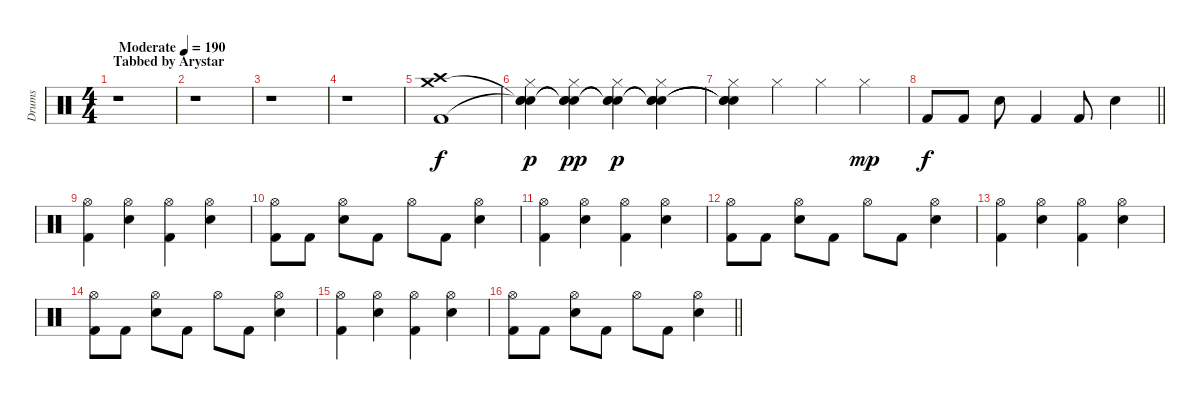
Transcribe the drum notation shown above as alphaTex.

\track ("Drums" "Drums") {instrument percussion}
\staff {score}
\articulation defaults
\ts (4 4)
\section ("" "Tabbed by Arystar")
\tempo (190 "Moderate")
\clef neutral
\ks c
r.1{dy f} |
r.1 |
r.1 |
r.1 |
("Crash medium (hit)" "Crash high (hit)" "Kick (hit) 2").1 |
("Snare (hit)"{t} "Hi-Hat (closed)" "Snare (hit)"{t} "Snare (hit)").4{dy p} ("Snare (hit)"{t} "Hi-Hat (closed)" "Snare (hit)"{t} "Snare (hit)"{t}).4{dy pp} ("Snare (hit)"{t} "Hi-Hat (closed)" "Snare (hit)"{t} "Snare (hit)"{t}).4{dy p} ("Snare (hit)"{t} "Hi-Hat (closed)" "Snare (hit)"{t} "Snare (hit)"{t}).4 |
("Snare (hit)"{t} "Hi-Hat (closed)" "Snare (hit)"{t} "Snare (hit)"{t}).4 "Hi-Hat (closed)".4 "Hi-Hat (closed)".4 "Hi-Hat (closed)".4{dy mp} |
\barLineRight lightlight "Kick (hit) 2".8{dy f} "Kick (hit) 2".8 "Electric Snare (hit)".8 "Kick (hit) 2".4 "Kick (hit) 2".8 "Electric Snare (hit)".4
|
("Hi-Hat (open)" "Kick (hit) 2").4 ("Hi-Hat (open)" "Electric Snare (hit)").4 ("Hi-Hat (open)" "Kick (hit) 2").4 ("Hi-Hat (open)" "Electric Snare (hit)").4 |
("Hi-Hat (open)" "Kick (hit) 2").8 "Kick (hit) 2".8 ("Hi-Hat (open)" "Electric Snare (hit)").8 "Kick (hit) 2".8 "Hi-Hat (open)".8 "Kick (hit) 2".8 ("Hi-Hat (open)" "Electric Snare (hit)").4 |
("Hi-Hat (open)" "Kick (hit) 2").4 ("Hi-Hat (open)" "Electric Snare (hit)").4 ("Hi-Hat (open)" "Kick (hit) 2").4 ("Hi-Hat (open)" "Electric Snare (hit)").4 |
("Hi-Hat (open)" "Kick (hit) 2").8 "Kick (hit) 2".8 ("Hi-Hat (open)" "Electric Snare (hit)").8 "Kick (hit) 2".8 "Hi-Hat (open)".8 "Kick (hit) 2".8 ("Hi-Hat (open)" "Electric Snare (hit)").4 |
("Hi-Hat (open)" "Kick (hit) 2").4 ("Hi-Hat (open)" "Electric Snare (hit)").4 ("Hi-Hat (open)" "Kick (hit) 2").4 ("Hi-Hat (open)" "Electric Snare (hit)").4 |
("Hi-Hat (open)" "Kick (hit) 2").8 "Kick (hit) 2".8 ("Hi-Hat (open)" "Electric Snare (hit)").8 "Kick (hit) 2".8 "Hi-Hat (open)".8 "Kick (hit) 2".8 ("Hi-Hat (open)" "Electric Snare (hit)").4 |
("Hi-Hat (open)" "Kick (hit) 2").4 ("Hi-Hat (open)" "Electric Snare (hit)").4 ("Hi-Hat (open)" "Kick (hit) 2").4 ("Hi-Hat (open)" "Electric Snare (hit)").4 |
\barLineRight lightlight
("Hi-Hat (open)" "Kick (hit) 2").8 "Kick (hit) 2".8 ("Hi-Hat (open)" "Electric Snare (hit)").8 "Kick (hit) 2".8 "Hi-Hat (open)".8 "Kick (hit) 2".8 ("Hi-Hat (open)" "Electric Snare (hit)").4
